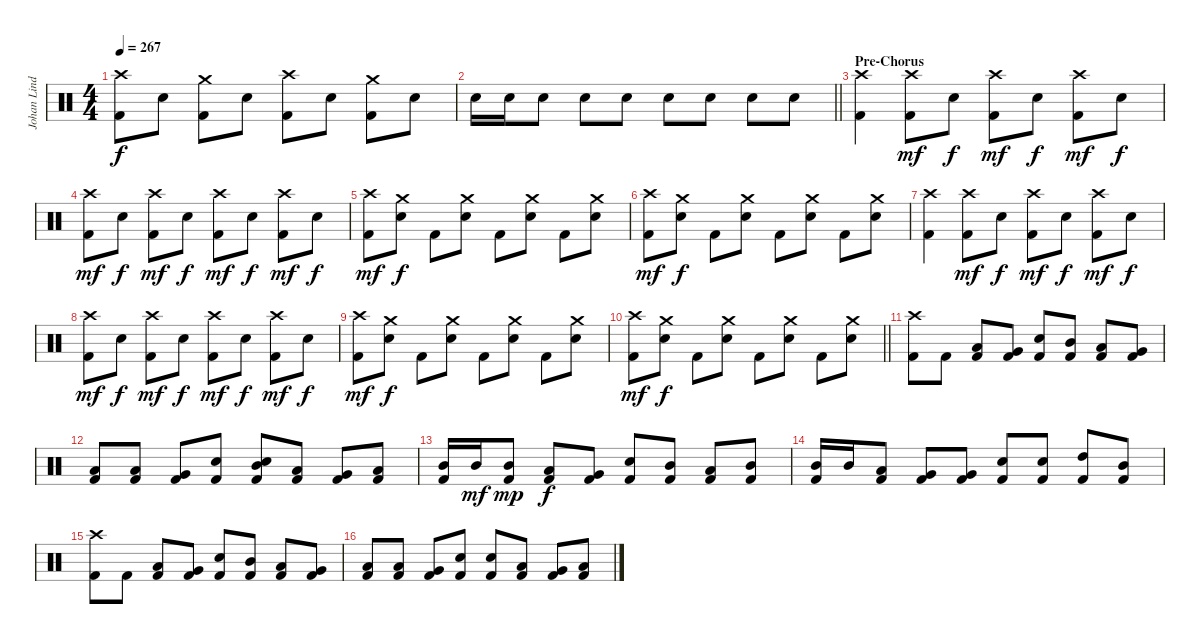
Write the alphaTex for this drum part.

\track ("Johan Lindstrand" "Johan Lind") {instrument percussion}
\staff {score}
\articulation defaults
\ts (4 4)
\tempo 267
\clef neutral
\ks c
("Crash high (hit)" "Kick (hit) 2").8{dy f} "Electric Snare (hit)".8 ("Crash medium (hit)" "Kick (hit) 2").8 "Electric Snare (hit)".8 ("Crash high (hit)" "Kick (hit) 2").8 "Electric Snare (hit)".8 ("Crash medium (hit)" "Kick (hit) 2").8 "Electric Snare (hit)".8 |
\barLineRight lightlight "Electric Snare (hit)".16 "Electric Snare (hit)".16 "Electric Snare (hit)".8 "Electric Snare (hit)".8 "Electric Snare (hit)".8 "Electric Snare (hit)".8 "Electric Snare (hit)".8 "Electric Snare (hit)".8 "Electric Snare (hit)".8
|
\section ("" "Pre-Chorus")
("Crash high (hit)" "Kick (hit) 2").4 ("Crash high (hit)" "Kick (hit) 2").8{dy mf} "Electric Snare (hit)".8{dy f} ("Crash high (hit)" "Kick (hit) 2").8{dy mf} "Electric Snare (hit)".8{dy f} ("Crash high (hit)" "Kick (hit) 2").8{dy mf} "Electric Snare (hit)".8{dy f} |
("Crash high (hit)" "Kick (hit) 2").8{dy mf} "Electric Snare (hit)".8{dy f} ("Crash high (hit)" "Kick (hit) 2").8{dy mf} "Electric Snare (hit)".8{dy f} ("Crash high (hit)" "Kick (hit) 2").8{dy mf} "Electric Snare (hit)".8{dy f} ("Crash high (hit)" "Kick (hit) 2").8{dy mf} "Electric Snare (hit)".8{dy f} |
("Crash high (hit)" "Kick (hit) 2").8{dy mf} ("Crash medium (hit)" "Electric Snare (hit)").8{dy f} "Kick (hit) 2".8 ("Crash medium (hit)" "Electric Snare (hit)").8 "Kick (hit) 2".8 ("Crash medium (hit)" "Electric Snare (hit)").8 "Kick (hit) 2".8 ("Crash medium (hit)" "Electric Snare (hit)").8 |
("Crash high (hit)" "Kick (hit) 2").8{dy mf} ("Crash medium (hit)" "Electric Snare (hit)").8{dy f} "Kick (hit) 2".8 ("Crash medium (hit)" "Electric Snare (hit)").8 "Kick (hit) 2".8 ("Crash medium (hit)" "Electric Snare (hit)").8 "Kick (hit) 2".8 ("Crash medium (hit)" "Electric Snare (hit)").8 |
("Crash high (hit)" "Kick (hit) 2").4 ("Crash high (hit)" "Kick (hit) 2").8{dy mf} "Electric Snare (hit)".8{dy f} ("Crash high (hit)" "Kick (hit) 2").8{dy mf} "Electric Snare (hit)".8{dy f} ("Crash high (hit)" "Kick (hit) 2").8{dy mf} "Electric Snare (hit)".8{dy f} |
("Crash high (hit)" "Kick (hit) 2").8{dy mf} "Electric Snare (hit)".8{dy f} ("Crash high (hit)" "Kick (hit) 2").8{dy mf} "Electric Snare (hit)".8{dy f} ("Crash high (hit)" "Kick (hit) 2").8{dy mf} "Electric Snare (hit)".8{dy f} ("Crash high (hit)" "Kick (hit) 2").8{dy mf} "Electric Snare (hit)".8{dy f} |
("Crash high (hit)" "Kick (hit) 2").8{dy mf} ("Crash medium (hit)" "Electric Snare (hit)").8{dy f} "Kick (hit) 2".8 ("Crash medium (hit)" "Electric Snare (hit)").8 "Kick (hit) 2".8 ("Crash medium (hit)" "Electric Snare (hit)").8 "Kick (hit) 2".8 ("Crash medium (hit)" "Electric Snare (hit)").8 |
\barLineRight lightlight
("Crash high (hit)" "Kick (hit) 2").8{dy mf} ("Crash medium (hit)" "Electric Snare (hit)").8{dy f} "Kick (hit) 2".8 ("Crash medium (hit)" "Electric Snare (hit)").8 "Kick (hit) 2".8 ("Crash medium (hit)" "Electric Snare (hit)").8 "Kick (hit) 2".8 ("Crash medium (hit)" "Electric Snare (hit)").8 |
\section ("" "")
("Crash high (hit)" "Kick (hit) 2").8 "Kick (hit) 2".8 ("Low Tom (hit)" "Kick (hit) 2").8 ("Very Low Tom (hit)" "Kick (hit) 2").8 ("Electric Snare (hit)" "Kick (hit) 2").8 ("Mid Tom (hit)" "Kick (hit) 2").8 ("Low Tom (hit)" "Kick (hit) 2").8 ("Very Low Tom (hit)" "Kick (hit) 2").8 |
("Low Floor Tom (hit)" "Kick (hit) 2").8 ("Low Tom (hit)" "Kick (hit) 2").8 ("Very Low Tom (hit)" "Kick (hit) 2").8 ("Electric Snare (hit)" "Kick (hit) 2").8 ("Mid Tom (hit)" "Electric Snare (hit)" "Kick (hit) 2").8 ("Low Tom (hit)" "Kick (hit) 2").8 ("Very Low Tom (hit)" "Kick (hit) 2").8 ("Low Floor Tom (hit)" "Kick (hit) 2").8 |
("Mid Tom (hit)" "Kick (hit) 2").16 "Mid Tom (hit)".16{dy mf} ("Mid Tom (hit)" "Kick (hit) 2").8{dy mp} ("Low Tom (hit)" "Kick (hit) 2").8{dy f} ("Very Low Tom (hit)" "Kick (hit) 2").8 ("Electric Snare (hit)" "Kick (hit) 2").8 ("Mid Tom (hit)" "Kick (hit) 2").8 ("Low Tom (hit)" "Kick (hit) 2").8 ("Mid Tom (hit)" "Kick (hit) 2").8 |
("Mid Tom (hit)" "Kick (hit) 2").16 "Mid Tom (hit)".16 ("Low Tom (hit)" "Kick (hit) 2").8 ("Very Low Tom (hit)" "Kick (hit) 2").8 ("Very Low Tom (hit)" "Kick (hit) 2").8 ("Electric Snare (hit)" "Kick (hit) 2").8 ("Electric Snare (hit)" "Kick (hit) 2").8 ("High Tom (hit)" "Kick (hit) 2").8 ("Mid Tom (hit)" "Kick (hit) 2").8 |
("Crash high (hit)" "Kick (hit) 2").8 "Kick (hit) 2".8 ("Low Tom (hit)" "Kick (hit) 2").8 ("Very Low Tom (hit)" "Kick (hit) 2").8 ("Electric Snare (hit)" "Kick (hit) 2").8 ("Mid Tom (hit)" "Kick (hit) 2").8 ("Low Tom (hit)" "Kick (hit) 2").8 ("Very Low Tom (hit)" "Kick (hit) 2").8 |
("Low Floor Tom (hit)" "Kick (hit) 2").8 ("Low Tom (hit)" "Kick (hit) 2").8 ("Very Low Tom (hit)" "Kick (hit) 2").8 ("Electric Snare (hit)" "Kick (hit) 2").8 ("Electric Snare (hit)" "Kick (hit) 2").8 ("Low Tom (hit)" "Kick (hit) 2").8 ("Very Low Tom (hit)" "Kick (hit) 2").8 ("Low Floor Tom (hit)" "Kick (hit) 2").8
